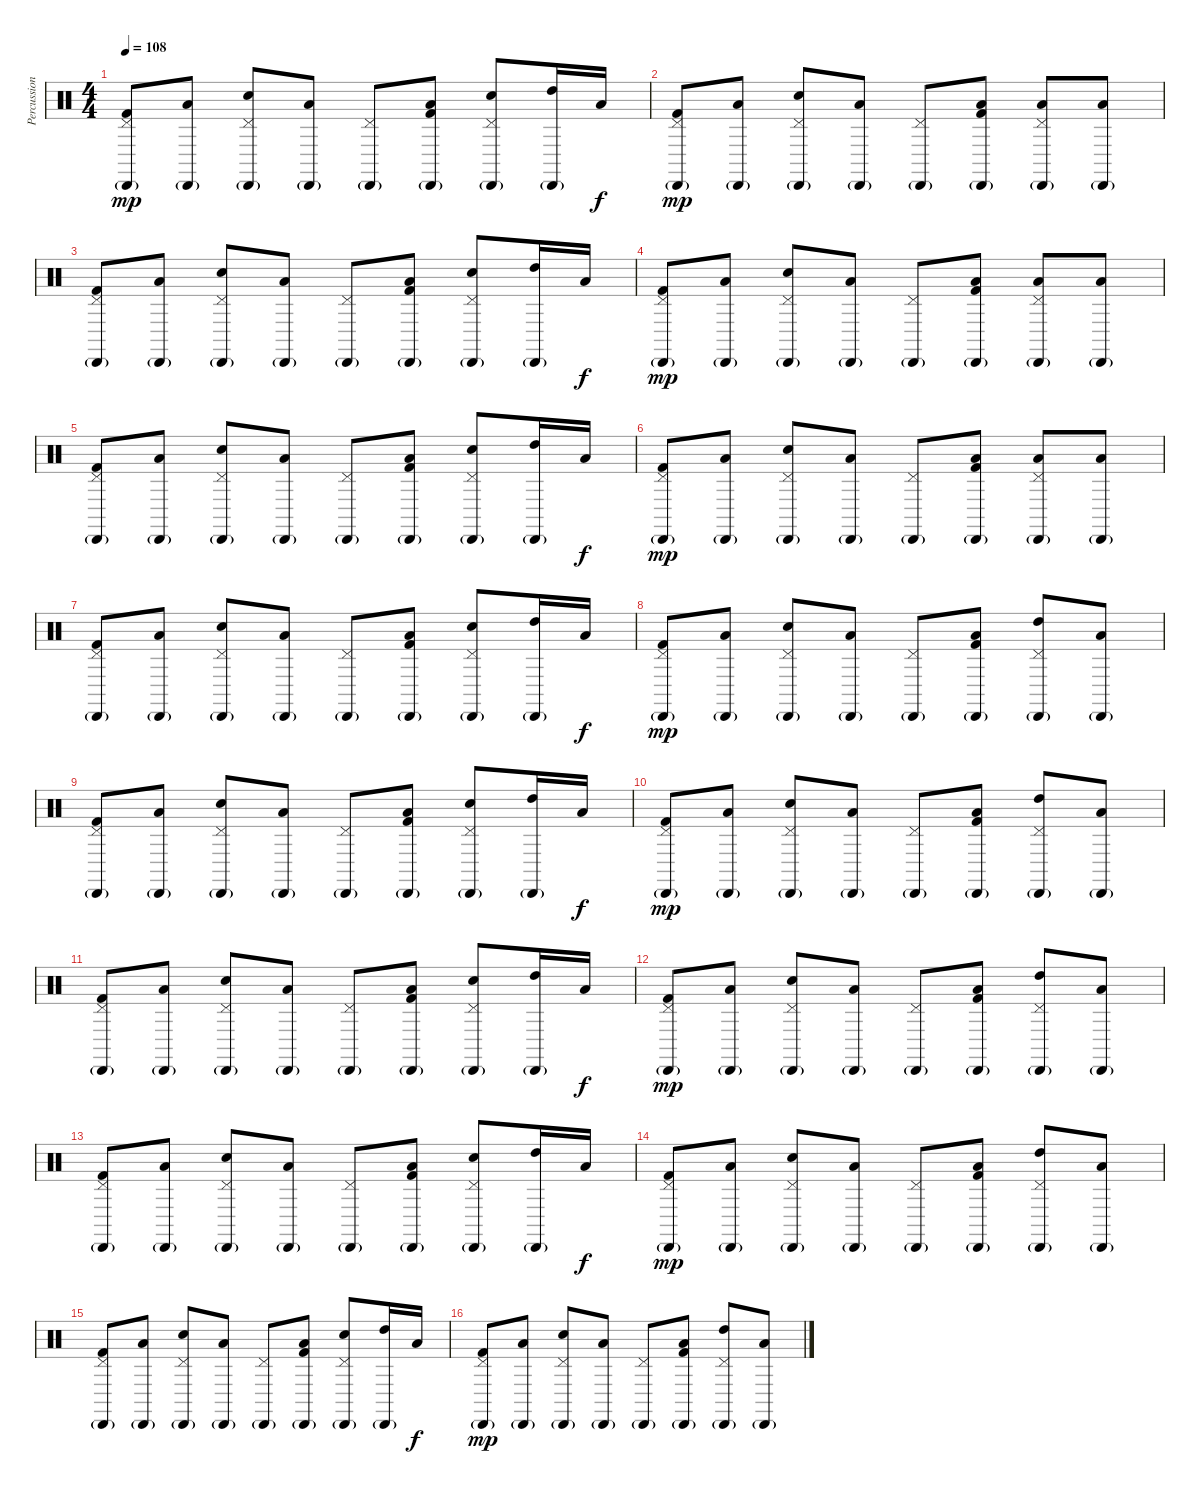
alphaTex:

\track ("Percussion" "Percussion") {instrument percussion}
\staff {score}
\articulation defaults
\ts (4 4)
\tempo 108
\clef neutral
\ks c
("Cabasa (hit)"{g} "Pedal Hi-Hat (hit)" "Kick (hit) 2").8{dy mp} ("Cabasa (hit)"{g} "Low Tom (hit)").8 ("Cabasa (hit)"{g} "Pedal Hi-Hat (hit)" "Snare (hit) 2").8 ("Cabasa (hit)"{g} "Low Tom (hit)").8 ("Cabasa (hit)"{g} "Pedal Hi-Hat (hit)").8 ("Cabasa (hit)"{g} "Low Tom (hit)" "Kick (hit) 2").8 ("Cabasa (hit)"{g} "Pedal Hi-Hat (hit)" "Snare (hit) 2").8 ("Cabasa (hit)"{g} "High Tom (hit)").16 "Low Tom (hit)".16{dy f} |
("Cabasa (hit)"{g} "Pedal Hi-Hat (hit)" "Kick (hit) 2").8{dy mp} ("Cabasa (hit)"{g} "Low Tom (hit)").8 ("Cabasa (hit)"{g} "Pedal Hi-Hat (hit)" "Snare (hit) 2").8 ("Cabasa (hit)"{g} "Low Tom (hit)").8 ("Cabasa (hit)"{g} "Pedal Hi-Hat (hit)").8 ("Cabasa (hit)"{g} "Low Tom (hit)" "Kick (hit) 2").8 ("Cabasa (hit)"{g} "Pedal Hi-Hat (hit)" "Low Floor Tom (hit)").8 ("Cabasa (hit)"{g} "Low Tom (hit)").8 |
("Cabasa (hit)"{g} "Pedal Hi-Hat (hit)" "Kick (hit) 2").8 ("Cabasa (hit)"{g} "Low Tom (hit)").8 ("Cabasa (hit)"{g} "Pedal Hi-Hat (hit)" "Snare (hit) 2").8 ("Cabasa (hit)"{g} "Low Tom (hit)").8 ("Cabasa (hit)"{g} "Pedal Hi-Hat (hit)").8 ("Cabasa (hit)"{g} "Low Tom (hit)" "Kick (hit) 2").8 ("Cabasa (hit)"{g} "Pedal Hi-Hat (hit)" "Snare (hit) 2").8 ("Cabasa (hit)"{g} "High Tom (hit)").16 "Low Tom (hit)".16{dy f} |
("Cabasa (hit)"{g} "Pedal Hi-Hat (hit)" "Kick (hit) 2").8{dy mp} ("Cabasa (hit)"{g} "Low Tom (hit)").8 ("Cabasa (hit)"{g} "Pedal Hi-Hat (hit)" "Snare (hit) 2").8 ("Cabasa (hit)"{g} "Low Tom (hit)").8 ("Cabasa (hit)"{g} "Pedal Hi-Hat (hit)").8 ("Cabasa (hit)"{g} "Low Tom (hit)" "Kick (hit) 2").8 ("Cabasa (hit)"{g} "Pedal Hi-Hat (hit)" "Low Floor Tom (hit)").8 ("Cabasa (hit)"{g} "Low Tom (hit)").8 |
("Cabasa (hit)"{g} "Pedal Hi-Hat (hit)" "Kick (hit) 2").8 ("Cabasa (hit)"{g} "Low Tom (hit)").8 ("Cabasa (hit)"{g} "Pedal Hi-Hat (hit)" "Snare (hit) 2").8 ("Cabasa (hit)"{g} "Low Tom (hit)").8 ("Cabasa (hit)"{g} "Pedal Hi-Hat (hit)").8 ("Cabasa (hit)"{g} "Low Tom (hit)" "Kick (hit) 2").8 ("Cabasa (hit)"{g} "Pedal Hi-Hat (hit)" "Snare (hit) 2").8 ("Cabasa (hit)"{g} "High Tom (hit)").16 "Low Tom (hit)".16{dy f} |
("Cabasa (hit)"{g} "Pedal Hi-Hat (hit)" "Kick (hit) 2").8{dy mp} ("Cabasa (hit)"{g} "Low Tom (hit)").8 ("Cabasa (hit)"{g} "Pedal Hi-Hat (hit)" "Snare (hit) 2").8 ("Cabasa (hit)"{g} "Low Tom (hit)").8 ("Cabasa (hit)"{g} "Pedal Hi-Hat (hit)").8 ("Cabasa (hit)"{g} "Low Tom (hit)" "Kick (hit) 2").8 ("Cabasa (hit)"{g} "Pedal Hi-Hat (hit)" "Low Floor Tom (hit)").8 ("Cabasa (hit)"{g} "Low Tom (hit)").8 |
("Cabasa (hit)"{g} "Pedal Hi-Hat (hit)" "Kick (hit) 2").8 ("Cabasa (hit)"{g} "Low Tom (hit)").8 ("Cabasa (hit)"{g} "Pedal Hi-Hat (hit)" "Snare (hit) 2").8 ("Cabasa (hit)"{g} "Low Tom (hit)").8 ("Cabasa (hit)"{g} "Pedal Hi-Hat (hit)").8 ("Cabasa (hit)"{g} "Low Tom (hit)" "Kick (hit) 2").8 ("Cabasa (hit)"{g} "Pedal Hi-Hat (hit)" "Snare (hit) 2").8 ("Cabasa (hit)"{g} "High Tom (hit)").16 "Low Tom (hit)".16{dy f} |
("Cabasa (hit)"{g} "Pedal Hi-Hat (hit)" "Kick (hit) 2").8{dy mp} ("Cabasa (hit)"{g} "Low Tom (hit)").8 ("Cabasa (hit)"{g} "Pedal Hi-Hat (hit)" "Snare (hit) 2").8 ("Cabasa (hit)"{g} "Low Tom (hit)").8 ("Cabasa (hit)"{g} "Pedal Hi-Hat (hit)").8 ("Cabasa (hit)"{g} "Low Tom (hit)" "Kick (hit) 2").8 ("Cabasa (hit)"{g} "Pedal Hi-Hat (hit)" "High Tom (hit)").8 ("Cabasa (hit)"{g} "Low Tom (hit)").8 |
("Cabasa (hit)"{g} "Pedal Hi-Hat (hit)" "Kick (hit) 2").8 ("Cabasa (hit)"{g} "Low Tom (hit)").8 ("Cabasa (hit)"{g} "Pedal Hi-Hat (hit)" "Snare (hit) 2").8 ("Cabasa (hit)"{g} "Low Tom (hit)").8 ("Cabasa (hit)"{g} "Pedal Hi-Hat (hit)").8 ("Cabasa (hit)"{g} "Low Tom (hit)" "Kick (hit) 2").8 ("Cabasa (hit)"{g} "Pedal Hi-Hat (hit)" "Snare (hit) 2").8 ("Cabasa (hit)"{g} "High Tom (hit)").16 "Low Tom (hit)".16{dy f} |
("Cabasa (hit)"{g} "Pedal Hi-Hat (hit)" "Kick (hit) 2").8{dy mp} ("Cabasa (hit)"{g} "Low Tom (hit)").8 ("Cabasa (hit)"{g} "Pedal Hi-Hat (hit)" "Snare (hit) 2").8 ("Cabasa (hit)"{g} "Low Tom (hit)").8 ("Cabasa (hit)"{g} "Pedal Hi-Hat (hit)").8 ("Cabasa (hit)"{g} "Low Tom (hit)" "Kick (hit) 2").8 ("Cabasa (hit)"{g} "Pedal Hi-Hat (hit)" "High Tom (hit)").8 ("Cabasa (hit)"{g} "Low Tom (hit)").8 |
("Cabasa (hit)"{g} "Pedal Hi-Hat (hit)" "Kick (hit) 2").8 ("Cabasa (hit)"{g} "Low Tom (hit)").8 ("Cabasa (hit)"{g} "Pedal Hi-Hat (hit)" "Snare (hit) 2").8 ("Cabasa (hit)"{g} "Low Tom (hit)").8 ("Cabasa (hit)"{g} "Pedal Hi-Hat (hit)").8 ("Cabasa (hit)"{g} "Low Tom (hit)" "Kick (hit) 2").8 ("Cabasa (hit)"{g} "Pedal Hi-Hat (hit)" "Snare (hit) 2").8 ("Cabasa (hit)"{g} "High Tom (hit)").16 "Low Tom (hit)".16{dy f} |
("Cabasa (hit)"{g} "Pedal Hi-Hat (hit)" "Kick (hit) 2").8{dy mp} ("Cabasa (hit)"{g} "Low Tom (hit)").8 ("Cabasa (hit)"{g} "Pedal Hi-Hat (hit)" "Snare (hit) 2").8 ("Cabasa (hit)"{g} "Low Tom (hit)").8 ("Cabasa (hit)"{g} "Pedal Hi-Hat (hit)").8 ("Cabasa (hit)"{g} "Low Tom (hit)" "Kick (hit) 2").8 ("Cabasa (hit)"{g} "Pedal Hi-Hat (hit)" "High Tom (hit)").8 ("Cabasa (hit)"{g} "Low Tom (hit)").8 |
("Cabasa (hit)"{g} "Pedal Hi-Hat (hit)" "Kick (hit) 2").8 ("Cabasa (hit)"{g} "Low Tom (hit)").8 ("Cabasa (hit)"{g} "Pedal Hi-Hat (hit)" "Snare (hit) 2").8 ("Cabasa (hit)"{g} "Low Tom (hit)").8 ("Cabasa (hit)"{g} "Pedal Hi-Hat (hit)").8 ("Cabasa (hit)"{g} "Low Tom (hit)" "Kick (hit) 2").8 ("Cabasa (hit)"{g} "Pedal Hi-Hat (hit)" "Snare (hit) 2").8 ("Cabasa (hit)"{g} "High Tom (hit)").16 "Low Tom (hit)".16{dy f} |
("Cabasa (hit)"{g} "Pedal Hi-Hat (hit)" "Kick (hit) 2").8{dy mp} ("Cabasa (hit)"{g} "Low Tom (hit)").8 ("Cabasa (hit)"{g} "Pedal Hi-Hat (hit)" "Snare (hit) 2").8 ("Cabasa (hit)"{g} "Low Tom (hit)").8 ("Cabasa (hit)"{g} "Pedal Hi-Hat (hit)").8 ("Cabasa (hit)"{g} "Low Tom (hit)" "Kick (hit) 2").8 ("Cabasa (hit)"{g} "Pedal Hi-Hat (hit)" "High Tom (hit)").8 ("Cabasa (hit)"{g} "Low Tom (hit)").8 |
("Cabasa (hit)"{g} "Pedal Hi-Hat (hit)" "Kick (hit) 2").8 ("Cabasa (hit)"{g} "Low Tom (hit)").8 ("Cabasa (hit)"{g} "Pedal Hi-Hat (hit)" "Snare (hit) 2").8 ("Cabasa (hit)"{g} "Low Tom (hit)").8 ("Cabasa (hit)"{g} "Pedal Hi-Hat (hit)").8 ("Cabasa (hit)"{g} "Low Tom (hit)" "Kick (hit) 2").8 ("Cabasa (hit)"{g} "Pedal Hi-Hat (hit)" "Snare (hit) 2").8 ("Cabasa (hit)"{g} "High Tom (hit)").16 "Low Tom (hit)".16{dy f} |
("Cabasa (hit)"{g} "Pedal Hi-Hat (hit)" "Kick (hit) 2").8{dy mp} ("Cabasa (hit)"{g} "Low Tom (hit)").8 ("Cabasa (hit)"{g} "Pedal Hi-Hat (hit)" "Snare (hit) 2").8 ("Cabasa (hit)"{g} "Low Tom (hit)").8 ("Cabasa (hit)"{g} "Pedal Hi-Hat (hit)").8 ("Cabasa (hit)"{g} "Low Tom (hit)" "Kick (hit) 2").8 ("Cabasa (hit)"{g} "Pedal Hi-Hat (hit)" "High Tom (hit)").8 ("Cabasa (hit)"{g} "Low Tom (hit)").8
